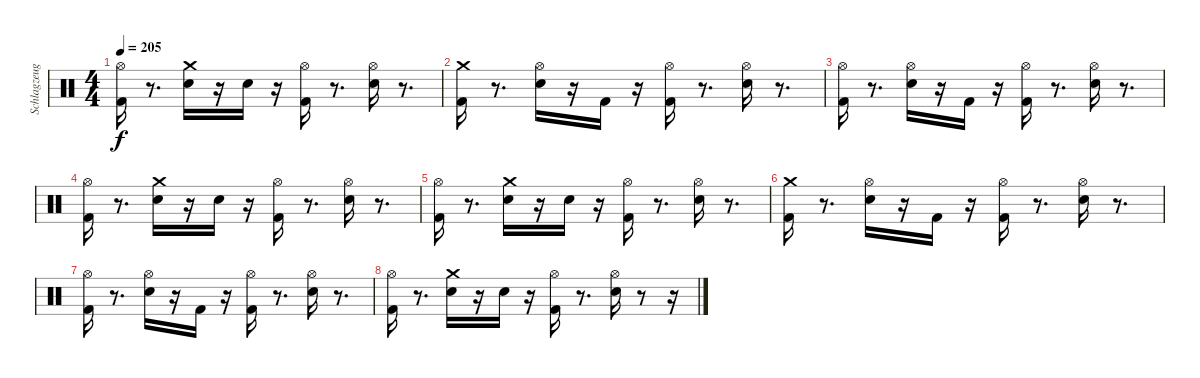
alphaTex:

\track ("Schlagzeug - Bela B." "Schlagzeug") {instrument percussion}
\staff {score}
\articulation defaults
\ts (4 4)
\tempo 205
\clef neutral
\ks c
("Kick (hit) 2" "Hi-Hat (open)").16{dy f volume 8} r.8{d} ("Electric Snare (hit)" "Crash medium (hit)").16{volume 8} r.16 "Electric Snare (hit)".16{volume 8} r.16 ("Kick (hit) 2" "Hi-Hat (open)").16{volume 8} r.8{d} ("Electric Snare (hit)" "Hi-Hat (open)").16{volume 7} r.8{d} |
("Kick (hit) 2" "Crash medium (hit)").16{volume 7} r.8{d} ("Electric Snare (hit)" "Hi-Hat (open)").16{volume 7} r.16 "Kick (hit) 2".16{volume 6} r.16 ("Kick (hit) 2" "Hi-Hat (open)").16{volume 6} r.8{d} ("Electric Snare (hit)" "Hi-Hat (open)").16{volume 6} r.8{d} |
("Kick (hit) 2" "Hi-Hat (open)").16{volume 6} r.8{d} ("Electric Snare (hit)" "Hi-Hat (open)").16{volume 6} r.16 "Kick (hit) 2".16{volume 5} r.16 ("Kick (hit) 2" "Hi-Hat (open)").16{volume 5} r.8{d} ("Electric Snare (hit)" "Hi-Hat (open)").16{volume 5} r.8{d} |
("Kick (hit) 2" "Hi-Hat (open)").16{volume 5} r.8{d} ("Electric Snare (hit)" "Crash medium (hit)").16{volume 4} r.16 "Electric Snare (hit)".16{volume 4} r.16 ("Kick (hit) 2" "Hi-Hat (open)").16{volume 4} r.8{d} ("Electric Snare (hit)" "Hi-Hat (open)").16{volume 4} r.8{d} |
("Kick (hit) 2" "Hi-Hat (open)").16{volume 4} r.8{d} ("Electric Snare (hit)" "Crash medium (hit)").16{volume 3} r.16 "Electric Snare (hit)".16{volume 3} r.16 ("Kick (hit) 2" "Hi-Hat (open)").16{volume 3} r.8{d} ("Electric Snare (hit)" "Hi-Hat (open)").16{volume 3} r.8{d} |
("Kick (hit) 2" "Crash medium (hit)").16{volume 2} r.8{d} ("Electric Snare (hit)" "Hi-Hat (open)").16{volume 2} r.16 "Kick (hit) 2".16{volume 2} r.16 ("Kick (hit) 2" "Hi-Hat (open)").16{volume 2} r.8{d} ("Electric Snare (hit)" "Hi-Hat (open)").16{volume 2} r.8{d} |
("Kick (hit) 2" "Hi-Hat (open)").16{volume 1} r.8{d} ("Electric Snare (hit)" "Hi-Hat (open)").16{volume 1} r.16 "Kick (hit) 2".16{volume 1} r.16 ("Kick (hit) 2" "Hi-Hat (open)").16{volume 1} r.8{d} ("Electric Snare (hit)" "Hi-Hat (open)").16{volume 0} r.8{d} |
("Kick (hit) 2" "Hi-Hat (open)").16{volume 0} r.8{d} ("Electric Snare (hit)" "Crash medium (hit)").16 r.16 "Electric Snare (hit)".16 r.16 ("Kick (hit) 2" "Hi-Hat (open)").16 r.8{d} ("Electric Snare (hit)" "Hi-Hat (open)").16 r.8 r.16
